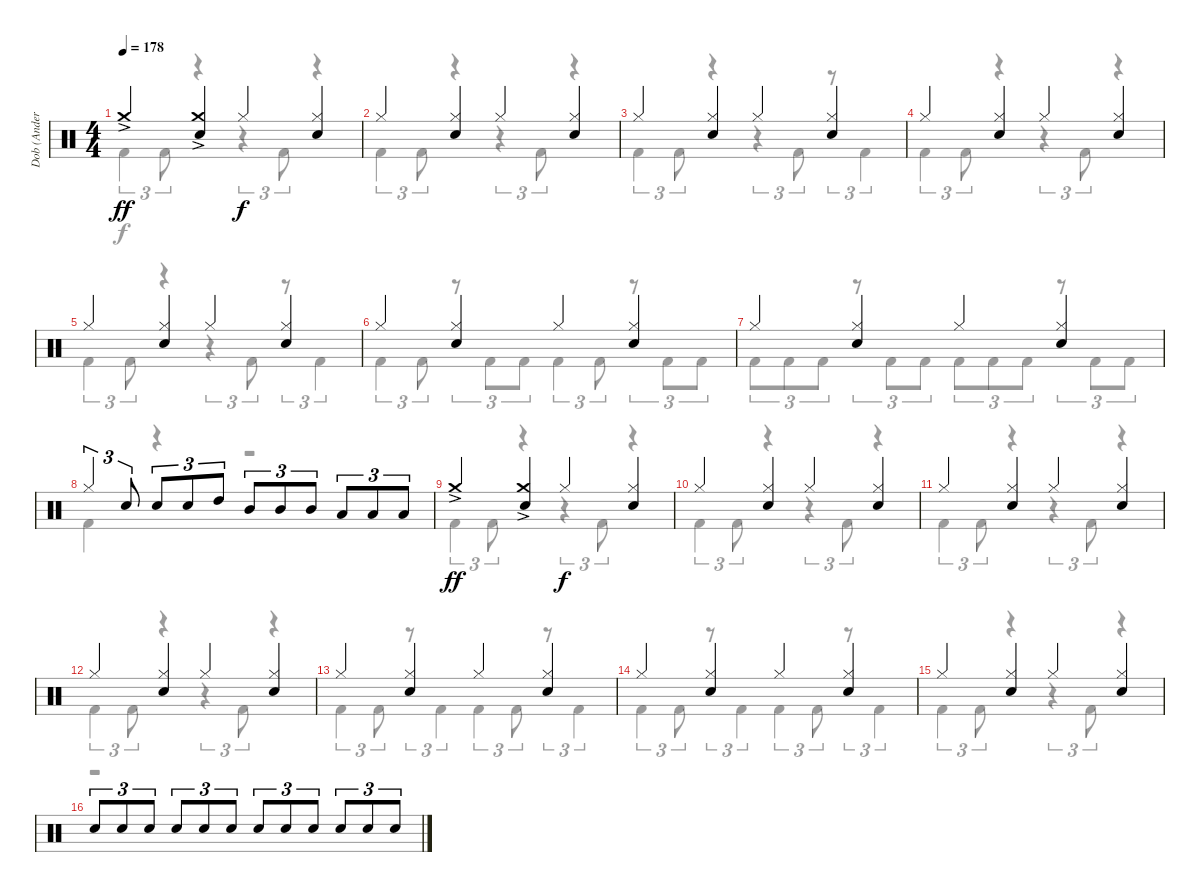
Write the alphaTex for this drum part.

\track ("Dob (Anders Johansson)" "Dob (Ander") {instrument percussion}
\staff {score}
\articulation defaults
\voice
\ts (4 4)
\tempo 178
\clef neutral
\ks c "Crash medium (hit)"{ac}.4{dy ff}
("Crash medium (hit)"{ac} "Electric Snare (hit)").4 "Hi-Hat (closed)".4{dy f} ("Hi-Hat (closed)" "Electric Snare (hit)").4 |
"Hi-Hat (closed)".4 ("Hi-Hat (closed)" "Electric Snare (hit)").4 "Hi-Hat (closed)".4 ("Hi-Hat (closed)" "Electric Snare (hit)").4 |
"Hi-Hat (closed)".4 ("Hi-Hat (closed)" "Electric Snare (hit)").4 "Hi-Hat (closed)".4 ("Hi-Hat (closed)" "Electric Snare (hit)").4 |
"Hi-Hat (closed)".4 ("Hi-Hat (closed)" "Electric Snare (hit)").4 "Hi-Hat (closed)".4 ("Hi-Hat (closed)" "Electric Snare (hit)").4 |
"Hi-Hat (closed)".4 ("Hi-Hat (closed)" "Electric Snare (hit)").4 "Hi-Hat (closed)".4 ("Hi-Hat (closed)" "Electric Snare (hit)").4 |
"Hi-Hat (closed)".4 ("Hi-Hat (closed)" "Electric Snare (hit)").4 "Hi-Hat (closed)".4 ("Hi-Hat (closed)" "Electric Snare (hit)").4 |
"Hi-Hat (closed)".4 ("Hi-Hat (closed)" "Electric Snare (hit)").4 "Hi-Hat (closed)".4 ("Hi-Hat (closed)" "Electric Snare (hit)").4 |
"Hi-Hat (closed)".4{tu (3 2)} "Electric Snare (hit)".8{tu (3 2)} "Electric Snare (hit)".8{tu (3 2)} "Electric Snare (hit)".8{tu (3 2)} "High Tom (hit)".8{tu (3 2)} "Mid Tom (hit)".8{tu (3 2)} "Mid Tom (hit)".8{tu (3 2)} "Mid Tom (hit)".8{tu (3 2)} "Low Tom (hit)".8{tu (3 2)} "Low Tom (hit)".8{tu (3 2)} "Low Tom (hit)".8{tu (3 2)} |
"Crash medium (hit)"{ac}.4{dy ff} ("Crash medium (hit)"{ac} "Electric Snare (hit)").4 "Hi-Hat (closed)".4{dy f} ("Hi-Hat (closed)" "Electric Snare (hit)").4 |
"Hi-Hat (closed)".4 ("Hi-Hat (closed)" "Electric Snare (hit)").4 "Hi-Hat (closed)".4 ("Hi-Hat (closed)" "Electric Snare (hit)").4 |
"Hi-Hat (closed)".4 ("Hi-Hat (closed)" "Electric Snare (hit)").4 "Hi-Hat (closed)".4 ("Hi-Hat (closed)" "Electric Snare (hit)").4 |
"Hi-Hat (closed)".4 ("Hi-Hat (closed)" "Electric Snare (hit)").4 "Hi-Hat (closed)".4 ("Hi-Hat (closed)" "Electric Snare (hit)").4 |
"Hi-Hat (closed)".4 ("Hi-Hat (closed)" "Electric Snare (hit)").4 "Hi-Hat (closed)".4 ("Hi-Hat (closed)" "Electric Snare (hit)").4 |
"Hi-Hat (closed)".4 ("Hi-Hat (closed)" "Electric Snare (hit)").4 "Hi-Hat (closed)".4 ("Hi-Hat (closed)" "Electric Snare (hit)").4 |
"Hi-Hat (closed)".4 ("Hi-Hat (closed)" "Electric Snare (hit)").4 "Hi-Hat (closed)".4 ("Hi-Hat (closed)" "Electric Snare (hit)").4 |
"Electric Snare (hit)".8{tu (3 2)} "Electric Snare (hit)".8{tu (3 2)} "Electric Snare (hit)".8{tu (3 2)} "Electric Snare (hit)".8{tu (3 2)} "Electric Snare (hit)".8{tu (3 2)} "Electric Snare (hit)".8{tu (3 2)} "Electric Snare (hit)".8{tu (3 2)} "Electric Snare (hit)".8{tu (3 2)} "Electric Snare (hit)".8{tu (3 2)} "Electric Snare (hit)".8{tu (3 2)} "Electric Snare (hit)".8{tu (3 2)} "Electric Snare (hit)".8{tu (3 2)}
\voice
\clef neutral
\ottava regular
\simile none
\ks c "Kick (hit) 2".4{tu (3 2) dy f} "Kick (hit) 2".8{tu (3 2)}
r.4 r.4{tu (3 2)} "Kick (hit) 2".8{tu (3 2)} r.4 |
"Kick (hit) 2".4{tu (3 2)} "Kick (hit) 2".8{tu (3 2)} r.4 r.4{tu (3 2)} "Kick (hit) 2".8{tu (3 2)} r.4 |
"Kick (hit) 2".4{tu (3 2)} "Kick (hit) 2".8{tu (3 2)} r.4 r.4{tu (3 2)} "Kick (hit) 2".8{tu (3 2)} r.8{tu (3 2)} "Kick (hit) 2".4{tu (3 2)} |
"Kick (hit) 2".4{tu (3 2)} "Kick (hit) 2".8{tu (3 2)} r.4 r.4{tu (3 2)} "Kick (hit) 2".8{tu (3 2)} r.4 |
"Kick (hit) 2".4{tu (3 2)} "Kick (hit) 2".8{tu (3 2)} r.4 r.4{tu (3 2)} "Kick (hit) 2".8{tu (3 2)} r.8{tu (3 2)} "Kick (hit) 2".4{tu (3 2)} |
"Kick (hit) 2".4{tu (3 2)} "Kick (hit) 2".8{tu (3 2)} r.8{tu (3 2)} "Kick (hit) 2".8{tu (3 2)} "Kick (hit) 2".8{tu (3 2)} "Kick (hit) 2".4{tu (3 2)} "Kick (hit) 2".8{tu (3 2)} r.8{tu (3 2)} "Kick (hit) 2".8{tu (3 2)} "Kick (hit) 2".8{tu (3 2)} |
"Kick (hit) 2".8{tu (3 2)} "Kick (hit) 2".8{tu (3 2)} "Kick (hit) 2".8{tu (3 2)} r.8{tu (3 2)} "Kick (hit) 2".8{tu (3 2)} "Kick (hit) 2".8{tu (3 2)} "Kick (hit) 2".8{tu (3 2)} "Kick (hit) 2".8{tu (3 2)} "Kick (hit) 2".8{tu (3 2)} r.8{tu (3 2)} "Kick (hit) 2".8{tu (3 2)} "Kick (hit) 2".8{tu (3 2)} |
"Kick (hit) 2".4 r.4 r.2 |
"Kick (hit) 2".4{tu (3 2)} "Kick (hit) 2".8{tu (3 2)} r.4 r.4{tu (3 2)} "Kick (hit) 2".8{tu (3 2)} r.4 |
"Kick (hit) 2".4{tu (3 2)} "Kick (hit) 2".8{tu (3 2)} r.4 r.4{tu (3 2)} "Kick (hit) 2".8{tu (3 2)} r.4 |
"Kick (hit) 2".4{tu (3 2)} "Kick (hit) 2".8{tu (3 2)} r.4 r.4{tu (3 2)} "Kick (hit) 2".8{tu (3 2)} r.4 |
"Kick (hit) 2".4{tu (3 2)} "Kick (hit) 2".8{tu (3 2)} r.4 r.4{tu (3 2)} "Kick (hit) 2".8{tu (3 2)} r.4 |
"Kick (hit) 2".4{tu (3 2)} "Kick (hit) 2".8{tu (3 2)} r.8{tu (3 2)} "Kick (hit) 2".4{tu (3 2)} "Kick (hit) 2".4{tu (3 2)} "Kick (hit) 2".8{tu (3 2)} r.8{tu (3 2)} "Kick (hit) 2".4{tu (3 2)} |
"Kick (hit) 2".4{tu (3 2)} "Kick (hit) 2".8{tu (3 2)} r.8{tu (3 2)} "Kick (hit) 2".4{tu (3 2)} "Kick (hit) 2".4{tu (3 2)} "Kick (hit) 2".8{tu (3 2)} r.8{tu (3 2)} "Kick (hit) 2".4{tu (3 2)} |
"Kick (hit) 2".4{tu (3 2)} "Kick (hit) 2".8{tu (3 2)} r.4 r.4{tu (3 2)} "Kick (hit) 2".8{tu (3 2)} r.4 |
r.1
